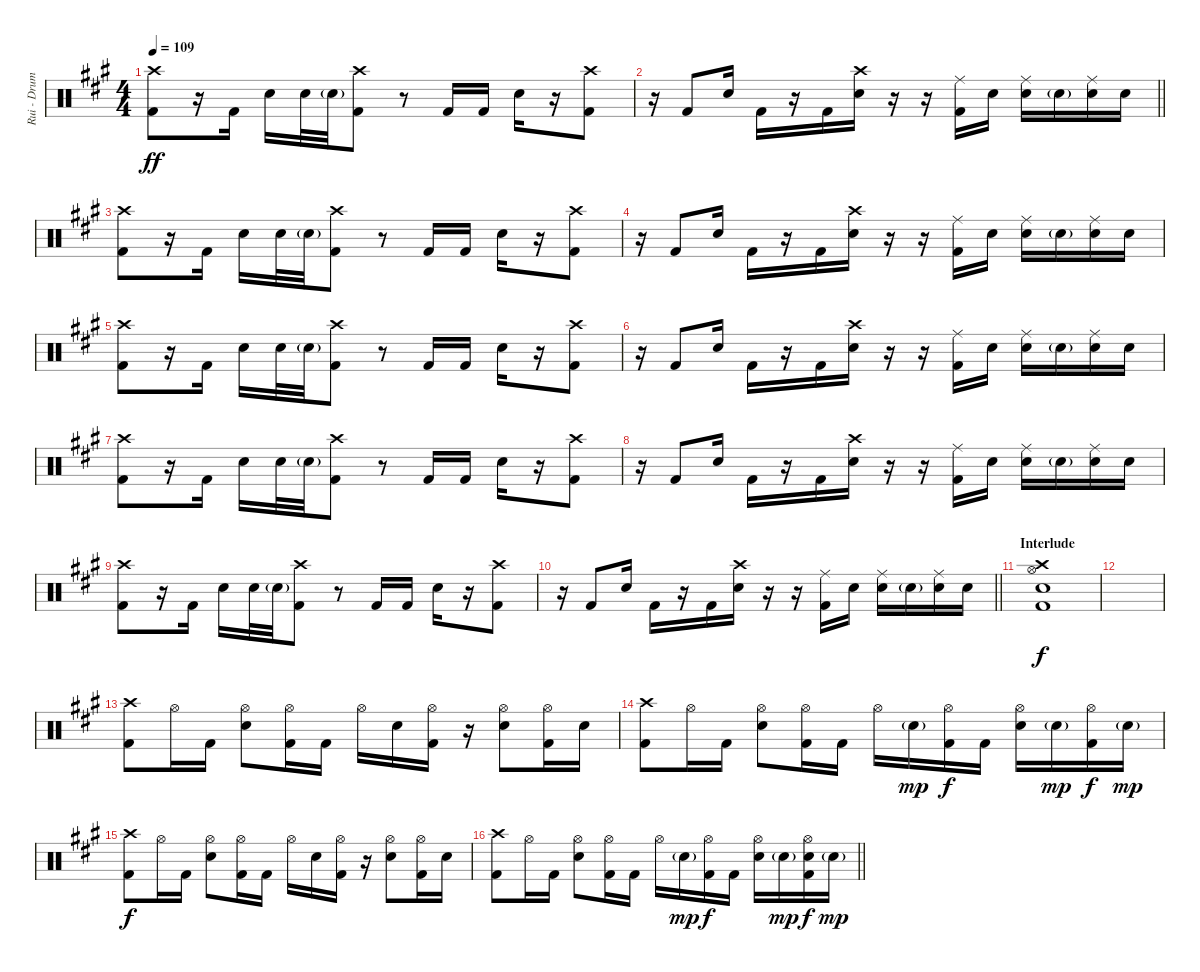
\track ("Rui - Drums" "Rui - Drum") {instrument percussion}
\staff {score}
\articulation defaults
\ts (4 4)
\tempo 109
\clef neutral
\ks f#minor
("Crash high (hit)" "Kick (hit) 2").8{dy ff} r.16 "Kick (hit) 2".16 "Electric Snare (hit)".16 "Electric Snare (hit)".32 "Electric Snare (hit)"{g}.32 ("Crash high (hit)" "Kick (hit) 2").8 r.8 "Kick (hit) 2".16 "Kick (hit) 2".16 "Electric Snare (hit)".16 r.16 ("Crash high (hit)" "Kick (hit) 2").8 |
\barLineRight lightlight
r.16 "Kick (hit) 2".8 "Electric Snare (hit)".16 "Kick (hit) 2".16 r.16 "Kick (hit) 2".16 ("Crash high (hit)" "Electric Snare (hit)").16 r.16 r.16 ("Ride (middle)" "Kick (hit) 2").16 "Electric Snare (hit)".16 ("Ride (middle)" "Electric Snare (hit)").16 "Electric Snare (hit)"{g}.16 ("Ride (middle)" "Electric Snare (hit)").16 "Electric Snare (hit)".16 |
\section ("" "")
("Crash high (hit)" "Kick (hit) 2").8 r.16 "Kick (hit) 2".16 "Electric Snare (hit)".16 "Electric Snare (hit)".32 "Electric Snare (hit)"{g}.32 ("Crash high (hit)" "Kick (hit) 2").8 r.8 "Kick (hit) 2".16 "Kick (hit) 2".16 "Electric Snare (hit)".16 r.16 ("Crash high (hit)" "Kick (hit) 2").8 |
r.16 "Kick (hit) 2".8 "Electric Snare (hit)".16 "Kick (hit) 2".16 r.16 "Kick (hit) 2".16 ("Crash high (hit)" "Electric Snare (hit)").16 r.16 r.16 ("Ride (middle)" "Kick (hit) 2").16 "Electric Snare (hit)".16 ("Ride (middle)" "Electric Snare (hit)").16 "Electric Snare (hit)"{g}.16 ("Ride (middle)" "Electric Snare (hit)").16 "Electric Snare (hit)".16 |
("Crash high (hit)" "Kick (hit) 2").8 r.16 "Kick (hit) 2".16 "Electric Snare (hit)".16 "Electric Snare (hit)".32 "Electric Snare (hit)"{g}.32 ("Crash high (hit)" "Kick (hit) 2").8 r.8 "Kick (hit) 2".16 "Kick (hit) 2".16 "Electric Snare (hit)".16 r.16 ("Crash high (hit)" "Kick (hit) 2").8 |
r.16 "Kick (hit) 2".8 "Electric Snare (hit)".16 "Kick (hit) 2".16 r.16 "Kick (hit) 2".16 ("Crash high (hit)" "Electric Snare (hit)").16 r.16 r.16 ("Ride (middle)" "Kick (hit) 2").16 "Electric Snare (hit)".16 ("Ride (middle)" "Electric Snare (hit)").16 "Electric Snare (hit)"{g}.16 ("Ride (middle)" "Electric Snare (hit)").16 "Electric Snare (hit)".16 |
("Crash high (hit)" "Kick (hit) 2").8 r.16 "Kick (hit) 2".16 "Electric Snare (hit)".16 "Electric Snare (hit)".32 "Electric Snare (hit)"{g}.32 ("Crash high (hit)" "Kick (hit) 2").8 r.8 "Kick (hit) 2".16 "Kick (hit) 2".16 "Electric Snare (hit)".16 r.16 ("Crash high (hit)" "Kick (hit) 2").8 |
r.16 "Kick (hit) 2".8 "Electric Snare (hit)".16 "Kick (hit) 2".16 r.16 "Kick (hit) 2".16 ("Crash high (hit)" "Electric Snare (hit)").16 r.16 r.16 ("Ride (middle)" "Kick (hit) 2").16 "Electric Snare (hit)".16 ("Ride (middle)" "Electric Snare (hit)").16 "Electric Snare (hit)"{g}.16 ("Ride (middle)" "Electric Snare (hit)").16 "Electric Snare (hit)".16 |
("Crash high (hit)" "Kick (hit) 2").8 r.16 "Kick (hit) 2".16 "Electric Snare (hit)".16 "Electric Snare (hit)".32 "Electric Snare (hit)"{g}.32 ("Crash high (hit)" "Kick (hit) 2").8 r.8 "Kick (hit) 2".16 "Kick (hit) 2".16 "Electric Snare (hit)".16 r.16 ("Crash high (hit)" "Kick (hit) 2").8 |
\barLineRight lightlight
r.16 "Kick (hit) 2".8 "Electric Snare (hit)".16 "Kick (hit) 2".16 r.16 "Kick (hit) 2".16 ("Crash high (hit)" "Electric Snare (hit)").16 r.16 r.16 ("Ride (middle)" "Kick (hit) 2").16 "Electric Snare (hit)".16 ("Ride (middle)" "Electric Snare (hit)").16 "Electric Snare (hit)"{g}.16 ("Ride (middle)" "Electric Snare (hit)").16 "Electric Snare (hit)".16 |
\section ("" "Interlude")
("Crash high (hit)" "Kick (hit) 2" "Electric Snare (hit)" "Hi-Hat (open)").1{dy f} |
|
("Crash high (hit)" "Kick (hit) 2").8 "Hi-Hat (open)".16 "Kick (hit) 2".16 ("Hi-Hat (open)" "Electric Snare (hit)").8 ("Hi-Hat (open)" "Kick (hit) 2").16 "Kick (hit) 2".16 "Hi-Hat (open)".16 "Electric Snare (hit)".16 ("Hi-Hat (open)" "Kick (hit) 2").16 r.16 ("Hi-Hat (open)" "Electric Snare (hit)").8 ("Hi-Hat (open)" "Kick (hit) 2").16 "Electric Snare (hit)".16 |
("Crash high (hit)" "Kick (hit) 2").8 "Hi-Hat (open)".16 "Kick (hit) 2".16 ("Hi-Hat (open)" "Electric Snare (hit)").8 ("Hi-Hat (open)" "Kick (hit) 2").16 "Kick (hit) 2".16 "Hi-Hat (open)".16 "Electric Snare (hit)"{g}.16{dy mp} ("Hi-Hat (open)" "Kick (hit) 2").16{dy f} "Kick (hit) 2".16 ("Hi-Hat (open)" "Electric Snare (hit)").16 "Electric Snare (hit)"{g}.16{dy mp} ("Hi-Hat (open)" "Kick (hit) 2").16{dy f} "Electric Snare (hit)"{g}.16{dy mp} |
("Crash high (hit)" "Kick (hit) 2").8{dy f} "Hi-Hat (open)".16 "Kick (hit) 2".16 ("Hi-Hat (open)" "Electric Snare (hit)").8 ("Hi-Hat (open)" "Kick (hit) 2").16 "Kick (hit) 2".16 "Hi-Hat (open)".16 "Electric Snare (hit)".16 ("Hi-Hat (open)" "Kick (hit) 2").16 r.16 ("Hi-Hat (open)" "Electric Snare (hit)").8 ("Hi-Hat (open)" "Kick (hit) 2").16 "Electric Snare (hit)".16 |
\barLineRight lightlight
("Crash high (hit)" "Kick (hit) 2").8 "Hi-Hat (open)".16 "Kick (hit) 2".16 ("Hi-Hat (open)" "Electric Snare (hit)").8 ("Hi-Hat (open)" "Kick (hit) 2").16 "Kick (hit) 2".16 "Hi-Hat (open)".16 "Electric Snare (hit)"{g}.16{dy mp} ("Hi-Hat (open)" "Kick (hit) 2").16{dy f} "Kick (hit) 2".16 ("Hi-Hat (open)" "Electric Snare (hit)").16 "Electric Snare (hit)"{g}.16{dy mp} ("Hi-Hat (open)" "Electric Snare (hit)" "Kick (hit) 2").16{dy f} "Electric Snare (hit)"{g}.16{dy mp}
